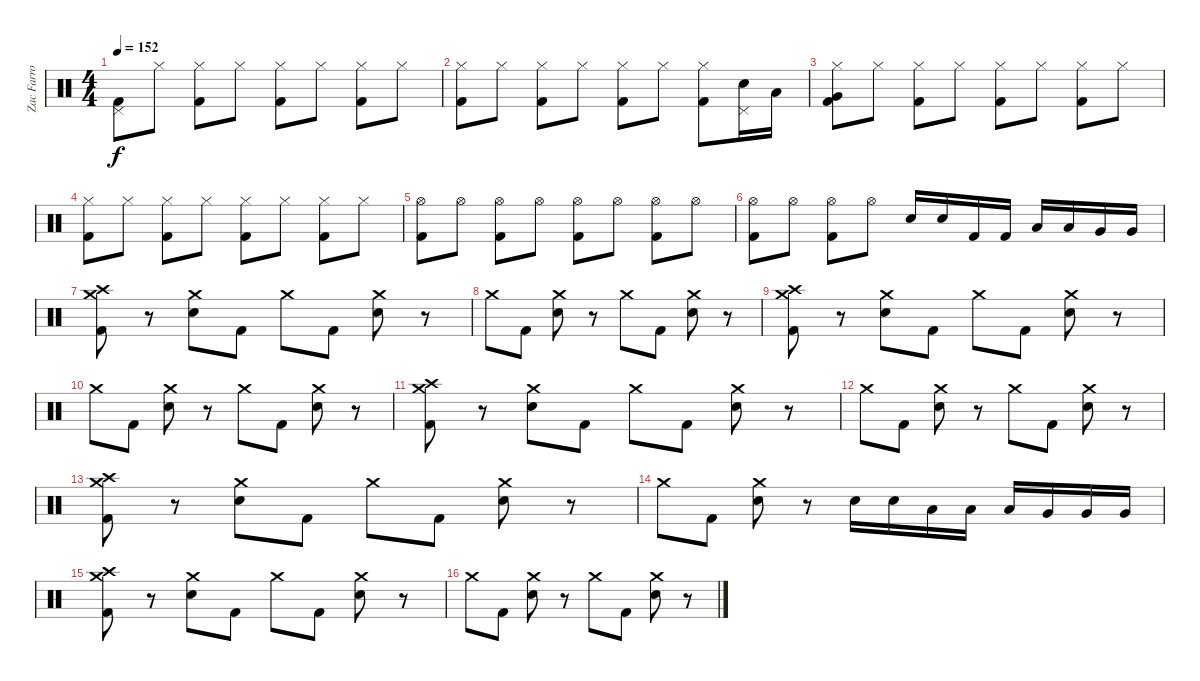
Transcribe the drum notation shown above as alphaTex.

\track ("Zac Farro - Drums" "Zac Farro ") {instrument percussion}
\staff {score}
\articulation defaults
\ts (4 4)
\tempo 152
\clef neutral
\ks c
("Pedal Hi-Hat (hit)" "Kick (hit) 2").8{dy f} "Hi-Hat (closed)".8 ("Hi-Hat (closed)" "Kick (hit) 2").8 "Hi-Hat (closed)".8 ("Hi-Hat (closed)" "Kick (hit) 2").8 "Hi-Hat (closed)".8 ("Hi-Hat (closed)" "Kick (hit) 2").8 "Hi-Hat (closed)".8 |
("Hi-Hat (closed)" "Kick (hit) 2").8 "Hi-Hat (closed)".8 ("Hi-Hat (closed)" "Kick (hit) 2").8 "Hi-Hat (closed)".8 ("Hi-Hat (closed)" "Kick (hit) 2").8 "Hi-Hat (closed)".8 ("Hi-Hat (closed)" "Kick (hit) 2").8 ("Pedal Hi-Hat (hit)" "Electric Snare (hit)").16 "Low Tom (hit)".16 |
("Hi-Hat (closed)" "Very Low Tom (hit)" "Kick (hit) 2").8 "Hi-Hat (closed)".8 ("Hi-Hat (closed)" "Kick (hit) 2").8 "Hi-Hat (closed)".8 ("Hi-Hat (closed)" "Kick (hit) 2").8 "Hi-Hat (closed)".8 ("Hi-Hat (closed)" "Kick (hit) 2").8 "Hi-Hat (closed)".8 |
("Hi-Hat (closed)" "Kick (hit) 2").8 "Hi-Hat (closed)".8 ("Hi-Hat (closed)" "Kick (hit) 2").8 "Hi-Hat (closed)".8 ("Hi-Hat (closed)" "Kick (hit) 2").8 "Hi-Hat (closed)".8 ("Hi-Hat (closed)" "Kick (hit) 2").8 "Hi-Hat (closed)".8 |
("Hi-Hat (open)" "Kick (hit) 2").8 "Hi-Hat (open)".8 ("Hi-Hat (open)" "Kick (hit) 2").8 "Hi-Hat (open)".8 ("Hi-Hat (open)" "Kick (hit) 2").8 "Hi-Hat (open)".8 ("Hi-Hat (open)" "Kick (hit) 2").8 "Hi-Hat (open)".8 |
("Hi-Hat (open)" "Kick (hit) 2").8 "Hi-Hat (open)".8 ("Hi-Hat (open)" "Kick (hit) 2").8 "Hi-Hat (open)".8 "Electric Snare (hit)".16 "Electric Snare (hit)".16 "Kick (hit) 2".16 "Kick (hit) 2".16 "Low Tom (hit)".16 "Low Tom (hit)".16 "Very Low Tom (hit)".16 "Very Low Tom (hit)".16 |
("Crash high (hit)" "Crash medium (hit)" "Kick (hit) 2").8 r.8 ("Crash medium (hit)" "Electric Snare (hit)").8 "Kick (hit) 2".8 "Crash medium (hit)".8 "Kick (hit) 2".8 ("Crash medium (hit)" "Electric Snare (hit)").8 r.8 |
"Crash medium (hit)".8 "Kick (hit) 2".8 ("Crash medium (hit)" "Electric Snare (hit)").8 r.8 "Crash medium (hit)".8 "Kick (hit) 2".8 ("Crash medium (hit)" "Electric Snare (hit)").8 r.8 |
("Crash high (hit)" "Crash medium (hit)" "Kick (hit) 2").8 r.8 ("Crash medium (hit)" "Electric Snare (hit)").8 "Kick (hit) 2".8 "Crash medium (hit)".8 "Kick (hit) 2".8 ("Crash medium (hit)" "Electric Snare (hit)").8 r.8 |
"Crash medium (hit)".8 "Kick (hit) 2".8 ("Crash medium (hit)" "Electric Snare (hit)").8 r.8 "Crash medium (hit)".8 "Kick (hit) 2".8 ("Crash medium (hit)" "Electric Snare (hit)").8 r.8 |
("Crash high (hit)" "Crash medium (hit)" "Kick (hit) 2").8 r.8 ("Crash medium (hit)" "Electric Snare (hit)").8 "Kick (hit) 2".8 "Crash medium (hit)".8 "Kick (hit) 2".8 ("Crash medium (hit)" "Electric Snare (hit)").8 r.8 |
"Crash medium (hit)".8 "Kick (hit) 2".8 ("Crash medium (hit)" "Electric Snare (hit)").8 r.8 "Crash medium (hit)".8 "Kick (hit) 2".8 ("Crash medium (hit)" "Electric Snare (hit)").8 r.8 |
("Crash high (hit)" "Crash medium (hit)" "Kick (hit) 2").8 r.8 ("Crash medium (hit)" "Electric Snare (hit)").8 "Kick (hit) 2".8 "Crash medium (hit)".8 "Kick (hit) 2".8 ("Crash medium (hit)" "Electric Snare (hit)").8 r.8 |
"Crash medium (hit)".8 "Kick (hit) 2".8 ("Crash medium (hit)" "Electric Snare (hit)").8 r.8 "Electric Snare (hit)".16 "Electric Snare (hit)".16 "Low Tom (hit)".16 "Low Tom (hit)".16 "Low Tom (hit)".16 "Very Low Tom (hit)".16 "Very Low Tom (hit)".16 "Very Low Tom (hit)".16 |
("Crash high (hit)" "Crash medium (hit)" "Kick (hit) 2").8 r.8 ("Crash medium (hit)" "Electric Snare (hit)").8 "Kick (hit) 2".8 "Crash medium (hit)".8 "Kick (hit) 2".8 ("Crash medium (hit)" "Electric Snare (hit)").8 r.8 |
"Crash medium (hit)".8 "Kick (hit) 2".8 ("Crash medium (hit)" "Electric Snare (hit)").8 r.8 "Crash medium (hit)".8 "Kick (hit) 2".8 ("Crash medium (hit)" "Electric Snare (hit)").8 r.8
